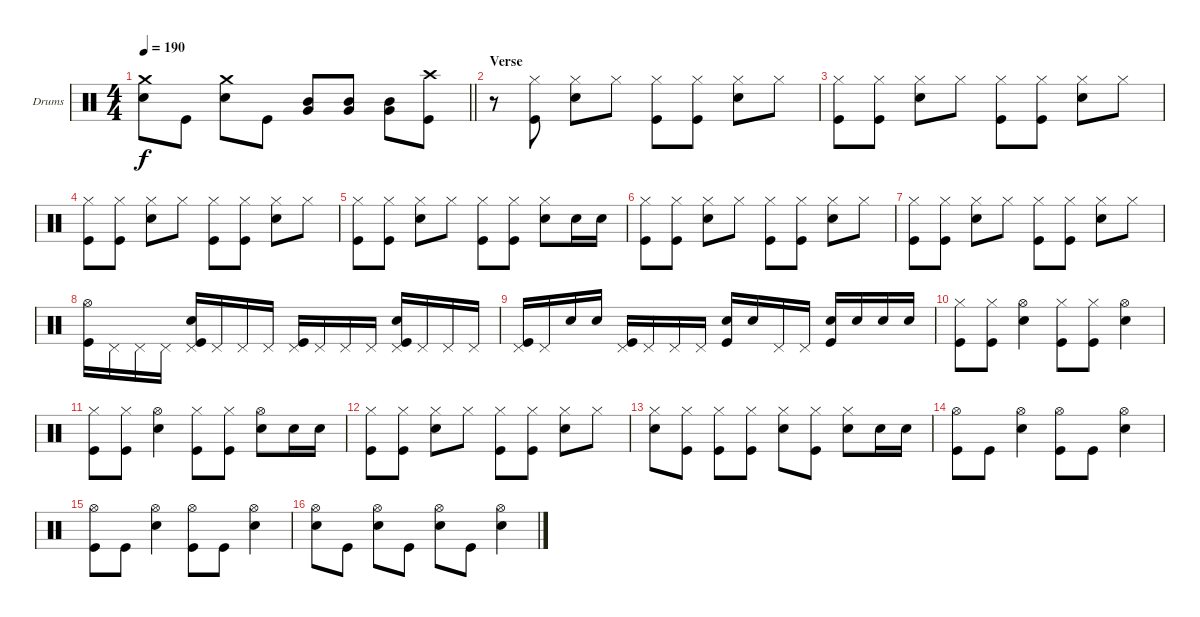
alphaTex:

\bracketExtendMode groupsimilarinstruments
\firstSystemTrackNameOrientation horizontal
\otherSystemsTrackNameOrientation horizontal
\track ("Drumkit" "Drums") {instrument percussion}
\staff {score}
\articulation defaults
\ts (4 4)
\tempo 190
\clef neutral
\barLineRight lightlight
\ks c
("Crash medium (hit)" "Snare (hit) 2").8{dy f} "Kick (hit)".8 ("Crash medium (hit)" "Snare (hit) 2").8 "Kick (hit)".8 ("Mid Tom (hit)" "Very Low Tom (hit)").8 ("Mid Tom (hit)" "Very Low Tom (hit)").8 ("Mid Tom (hit)" "Very Low Tom (hit)").8 ("Crash high (hit)" "Kick (hit)").8 |
\section ("" "Verse ")
r.8 ("Hi-Hat (closed)" "Kick (hit)").8 ("Hi-Hat (closed)" "Snare (hit) 2").8 "Hi-Hat (closed)".8 ("Hi-Hat (closed)" "Kick (hit)").8 ("Hi-Hat (closed)" "Kick (hit)").8 ("Hi-Hat (closed)" "Snare (hit) 2").8 "Hi-Hat (closed)".8 |
("Hi-Hat (closed)" "Kick (hit)").8 ("Hi-Hat (closed)" "Kick (hit)").8 ("Hi-Hat (closed)" "Snare (hit) 2").8 "Hi-Hat (closed)".8 ("Hi-Hat (closed)" "Kick (hit)").8 ("Hi-Hat (closed)" "Kick (hit)").8 ("Hi-Hat (closed)" "Snare (hit) 2").8 "Hi-Hat (closed)".8 |
("Hi-Hat (closed)" "Kick (hit)").8 ("Hi-Hat (closed)" "Kick (hit)").8 ("Hi-Hat (closed)" "Snare (hit) 2").8 "Hi-Hat (closed)".8 ("Hi-Hat (closed)" "Kick (hit)").8 ("Hi-Hat (closed)" "Kick (hit)").8 ("Hi-Hat (closed)" "Snare (hit) 2").8 "Hi-Hat (closed)".8 |
("Hi-Hat (closed)" "Kick (hit)").8 ("Hi-Hat (closed)" "Kick (hit)").8 ("Hi-Hat (closed)" "Snare (hit) 2").8 "Hi-Hat (closed)".8 ("Hi-Hat (closed)" "Kick (hit)").8 ("Hi-Hat (closed)" "Kick (hit)").8 ("Hi-Hat (closed)" "Snare (hit) 2").8 "Snare (hit) 2".16 "Snare (hit) 2".16 |
("Hi-Hat (closed)" "Kick (hit)").8 ("Hi-Hat (closed)" "Kick (hit)").8 ("Hi-Hat (closed)" "Snare (hit) 2").8 "Hi-Hat (closed)".8 ("Hi-Hat (closed)" "Kick (hit)").8 ("Hi-Hat (closed)" "Kick (hit)").8 ("Hi-Hat (closed)" "Snare (hit) 2").8 "Hi-Hat (closed)".8 |
("Hi-Hat (closed)" "Kick (hit)").8 ("Hi-Hat (closed)" "Kick (hit)").8 ("Hi-Hat (closed)" "Snare (hit) 2").8 "Hi-Hat (closed)".8 ("Hi-Hat (closed)" "Kick (hit)").8 ("Hi-Hat (closed)" "Kick (hit)").8 ("Hi-Hat (closed)" "Snare (hit) 2").8 "Hi-Hat (closed)".8 |
("Hi-Hat (open)" "Kick (hit)").16 "Pedal Hi-Hat (hit)".16 "Pedal Hi-Hat (hit)".16 "Pedal Hi-Hat (hit)".16 ("Pedal Hi-Hat (hit)" "Snare (hit) 2" "Kick (hit)").16 "Pedal Hi-Hat (hit)".16 "Pedal Hi-Hat (hit)".16 "Pedal Hi-Hat (hit)".16 ("Pedal Hi-Hat (hit)" "Kick (hit)").16 "Pedal Hi-Hat (hit)".16 "Pedal Hi-Hat (hit)".16 "Pedal Hi-Hat (hit)".16 ("Pedal Hi-Hat (hit)" "Snare (hit) 2" "Kick (hit)").16 "Pedal Hi-Hat (hit)".16 "Pedal Hi-Hat (hit)".16 "Pedal Hi-Hat (hit)".16 |
("Pedal Hi-Hat (hit)" "Kick (hit)").16 "Pedal Hi-Hat (hit)".16 "Snare (hit) 2".16 "Snare (hit) 2".16 ("Pedal Hi-Hat (hit)" "Kick (hit)").16 "Pedal Hi-Hat (hit)".16 "Pedal Hi-Hat (hit)".16 "Pedal Hi-Hat (hit)".16 ("Kick (hit)" "Snare (hit) 2").16 "Snare (hit) 2".16 "Pedal Hi-Hat (hit)".16 "Pedal Hi-Hat (hit)".16 ("Snare (hit) 2" "Kick (hit)").16 "Snare (hit) 2".16 "Snare (hit) 2".16 "Snare (hit) 2".16 |
("Hi-Hat (closed)" "Kick (hit)").8 ("Hi-Hat (closed)" "Kick (hit)").8 ("Hi-Hat (open)" "Snare (hit) 2").4 ("Hi-Hat (closed)" "Kick (hit)").8 ("Hi-Hat (closed)" "Kick (hit)").8 ("Hi-Hat (open)" "Snare (hit) 2").4 |
("Hi-Hat (closed)" "Kick (hit)").8 ("Hi-Hat (closed)" "Kick (hit)").8 ("Hi-Hat (open)" "Snare (hit) 2").4 ("Hi-Hat (closed)" "Kick (hit)").8 ("Hi-Hat (closed)" "Kick (hit)").8 ("Hi-Hat (open)" "Snare (hit) 2").8 "Snare (hit) 2".16 "Snare (hit) 2".16 |
("Hi-Hat (closed)" "Kick (hit)").8 ("Hi-Hat (closed)" "Kick (hit)").8 ("Hi-Hat (closed)" "Snare (hit) 2").8 "Hi-Hat (closed)".8 ("Hi-Hat (closed)" "Kick (hit)").8 ("Hi-Hat (closed)" "Kick (hit)").8 ("Hi-Hat (closed)" "Snare (hit) 2").8 "Hi-Hat (closed)".8 |
("Hi-Hat (closed)" "Snare (hit) 2").8 ("Hi-Hat (closed)" "Kick (hit)").8 ("Hi-Hat (closed)" "Kick (hit)").8 ("Hi-Hat (closed)" "Kick (hit)").8 ("Hi-Hat (closed)" "Snare (hit) 2").8 ("Hi-Hat (closed)" "Kick (hit)").8 ("Hi-Hat (closed)" "Snare (hit) 2").8 "Snare (hit) 2".16 "Snare (hit) 2".16 |
("Hi-Hat (open)" "Kick (hit)").8 "Kick (hit)".8 ("Hi-Hat (open)" "Snare (hit) 2").4 ("Hi-Hat (open)" "Kick (hit)").8 "Kick (hit)".8 ("Hi-Hat (open)" "Snare (hit) 2").4 |
("Hi-Hat (open)" "Kick (hit)").8 "Kick (hit)".8 ("Hi-Hat (open)" "Snare (hit) 2").4 ("Hi-Hat (open)" "Kick (hit)").8 "Kick (hit)".8 ("Hi-Hat (open)" "Snare (hit) 2").4 |
("Hi-Hat (open)" "Snare (hit) 2").8 "Kick (hit)".8 ("Hi-Hat (open)" "Snare (hit) 2").8 "Kick (hit)".8 ("Hi-Hat (open)" "Snare (hit) 2").8 "Kick (hit)".8 ("Hi-Hat (open)" "Snare (hit) 2").4
